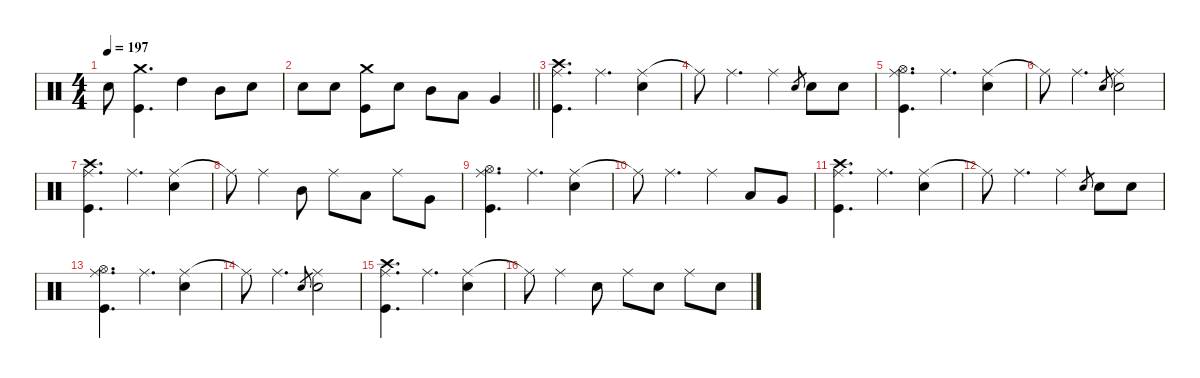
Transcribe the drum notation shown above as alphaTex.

\defaultSystemsLayout 4
\hideDynamics
\bracketExtendMode nobrackets
\singleTrackTrackNamePolicy hidden
\multiTrackTrackNamePolicy hidden
\firstSystemTrackNameMode fullname
\firstSystemTrackNameOrientation horizontal
\otherSystemsTrackNameOrientation horizontal
\track ("Drums" "drm.") {defaultSystemsLayout 4 instrument percussion}
\staff {score}
\articulation defaults
\ts (4 4)
\tempo 197
\clef neutral
\ks c "Snare (hit) 2".8{dy f beam Down}
("Crash medium (hit)" "Kick (hit)").4{d beam Down} "High Tom (hit)".4{beam Down} "Mid Tom (hit)".8{beam Down} "Snare (hit) 2".8{dy mp beam Down} |
\barLineRight lightlight "Snare (hit) 2".8{dy mf beam Down} "Snare (hit) 2".8{dy f beam Down}
("Crash medium (hit)" "Kick (hit)").8{beam Down} "Snare (hit) 2".8{beam Down} "Mid Tom (hit)".8{beam Down} "Low Tom (hit)".8{beam Down} "Very Low Tom (hit)".4{beam Up} |
("Crash high (hit)" "Ride (middle)" "Kick (hit)").4{d beam Down} "Ride (middle)".4{d beam Down} ("Ride (middle)" "Snare (hit) 2").4{beam Down} |
"Ride (middle)"{t}.8{beam Down} "Ride (middle)".4{d beam Down} "Ride (middle)".4{beam Down} "Electric Snare (hit)".8{gr dy p beam Up} "Snare (hit) 2".8{dy mp beam Down} "Snare (hit) 2".8{dy mf beam Down} |
("Hi-Hat (open)" "Ride (middle)" "Kick (hit)").4{d dy f beam Down} "Ride (middle)".4{d beam Down} ("Ride (middle)" "Snare (hit) 2").4{beam Down} |
"Ride (middle)"{t}.8{beam Down} "Ride (middle)".4{d beam Down} "Electric Snare (hit)".8{gr dy pp beam Up} ("Ride (middle)" "Snare (hit) 2").2{dy f beam Down} |
("Crash high (hit)" "Ride (middle)" "Kick (hit)").4{d beam Down} "Ride (middle)".4{d beam Down} ("Ride (middle)" "Snare (hit) 2").4{beam Down} |
"Ride (middle)"{t}.8{beam Down} "Ride (middle)".4{beam Down} "Mid Tom (hit)".8{dy mp beam Down} "Ride (middle)".8{dy f beam Down} "Low Tom (hit)".8{dy mp beam Down} "Ride (middle)".8{dy f beam Down} "Very Low Tom (hit)".8{dy mp beam Down} |
("Hi-Hat (open)" "Ride (middle)" "Kick (hit)").4{d dy f beam Down} "Ride (middle)".4{d beam Down} ("Ride (middle)" "Snare (hit) 2").4{beam Down} |
"Ride (middle)"{t}.8{beam Down} "Ride (middle)".4{d beam Down} "Ride (middle)".4{beam Down} "Low Tom (hit)".8{dy mp beam Up} "Very Low Tom (hit)".8{dy mf beam Up} |
("Crash high (hit)" "Ride (middle)" "Kick (hit)").4{d dy f beam Down} "Ride (middle)".4{d beam Down} ("Ride (middle)" "Snare (hit) 2").4{beam Down} |
"Ride (middle)"{t}.8{beam Down} "Ride (middle)".4{d beam Down} "Ride (middle)".4{beam Down} "Electric Snare (hit)".8{gr dy p beam Up} "Snare (hit) 2".8{dy mp beam Down} "Snare (hit) 2".8{dy mf beam Down} |
("Hi-Hat (open)" "Ride (middle)" "Kick (hit)").4{d dy f beam Down} "Ride (middle)".4{d beam Down} ("Ride (middle)" "Snare (hit) 2").4{beam Down} |
"Ride (middle)"{t}.8{beam Down} "Ride (middle)".4{d beam Down} "Electric Snare (hit)".8{gr dy pp beam Up} ("Ride (middle)" "Snare (hit) 2").2{dy f beam Down} |
("Crash high (hit)" "Ride (middle)" "Kick (hit)").4{d beam Down} "Ride (middle)".4{d beam Down} ("Ride (middle)" "Snare (hit) 2").4{beam Down} |
"Ride (middle)"{t}.8{beam Down} "Ride (middle)".4{beam Down} "Snare (hit) 2".8{dy mp beam Down} "Ride (middle)".8{dy f beam Down} "Snare (hit) 2".8{dy mp beam Down} "Ride (middle)".8{dy f beam Down} "Snare (hit) 2".8{dy mp beam Down}
